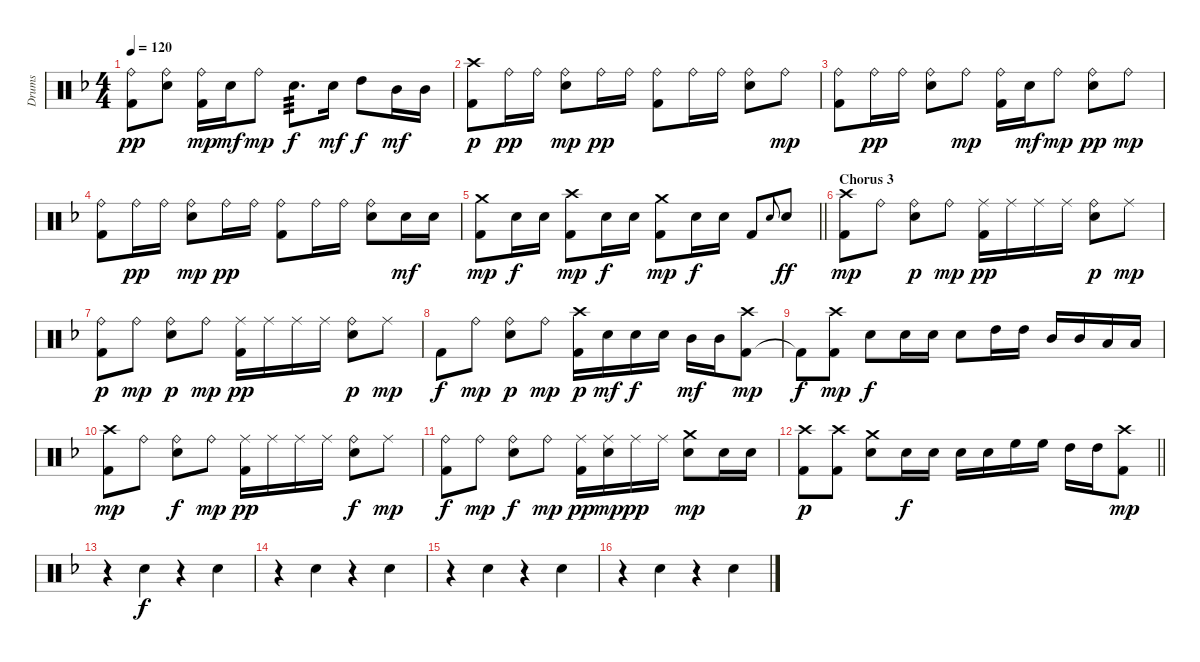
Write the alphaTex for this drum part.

\track ("Drums" "Drums") {instrument percussion}
\staff {score}
\articulation defaults
\ts (4 4)
\tempo 120
\clef neutral
\ks dminor
("Kick (hit) 2" "Ride (bell)").8{dy pp} ("Electric Snare (hit)" "Ride (bell)").8 ("Ride (bell)" "Kick (hit) 2").16{dy mp} "Electric Snare (hit)".16{dy mf} "Ride (bell)".8{dy mp} "Electric Snare (hit)".8{d tp 3 dy f} "Electric Snare (hit)".16{dy mf} "High Tom (hit)".8{dy f} "Mid Tom (hit)".16{dy mf} "Mid Tom (hit)".16 |
("Crash high (hit)" "Kick (hit) 2").8{dy p} "Ride (bell)".16{dy pp} "Ride (bell)".16 ("Ride (bell)" "Electric Snare (hit)").8{dy mp} "Ride (bell)".16{dy pp} "Ride (bell)".16 ("Ride (bell)" "Kick (hit) 2").8 "Ride (bell)".16 "Ride (bell)".16 ("Ride (bell)" "Electric Snare (hit)").8 "Ride (bell)".8{dy mp} |
("Ride (bell)" "Kick (hit) 2").8 "Ride (bell)".16{dy pp} "Ride (bell)".16 ("Ride (bell)" "Electric Snare (hit)").8 "Ride (bell)".8{dy mp} ("Ride (bell)" "Kick (hit) 2").16 "Electric Snare (hit)".16{dy mf} "Ride (bell)".8{dy mp} ("Ride (bell)" "Electric Snare (hit)").8{dy pp} "Ride (bell)".8{dy mp} |
("Ride (bell)" "Kick (hit) 2").8 "Ride (bell)".16{dy pp} "Ride (bell)".16 ("Ride (bell)" "Electric Snare (hit)").8{dy mp} "Ride (bell)".16{dy pp} "Ride (bell)".16 ("Ride (bell)" "Kick (hit) 2").8 "Ride (bell)".16 "Ride (bell)".16 ("Ride (bell)" "Electric Snare (hit)").8 "Electric Snare (hit)".16{dy mf} "Electric Snare (hit)".16 |
\barLineRight lightlight
("Kick (hit) 2" "Crash medium (hit)").8{dy mp} "Electric Snare (hit)".16{dy f} "Electric Snare (hit)".16 ("Kick (hit) 2" "Crash high (hit)").8{dy mp} "Electric Snare (hit)".16{dy f} "Electric Snare (hit)".16 ("Kick (hit) 2" "Crash medium (hit)").8{dy mp} "Electric Snare (hit)".16{dy f} "Electric Snare (hit)".16 "Kick (hit) 2".8 "Electric Snare (hit)".8{gr onbeat} "Electric Snare (hit)".8{dy ff} |
\section ("" "Chorus 3")
("Kick (hit) 2" "Crash high (hit)").8{dy mp} "Ride (bell)".8 ("Electric Snare (hit)" "Ride (bell)").8{dy p} "Ride (bell)".8{dy mp} ("Kick (hit) 2" "Ride (middle)").16{dy pp} "Ride (middle)".16 "Ride (middle)".16 "Ride (middle)".16 ("Electric Snare (hit)" "Ride (bell)").8{dy p} "Ride (middle)".8{dy mp} |
("Kick (hit) 2" "Ride (bell)").8{dy p} "Ride (bell)".8{dy mp} ("Electric Snare (hit)" "Ride (bell)").8{dy p} "Ride (bell)".8{dy mp} ("Kick (hit) 2" "Ride (middle)").16{dy pp} "Ride (middle)".16 "Ride (middle)".16 "Ride (middle)".16 ("Electric Snare (hit)" "Ride (bell)").8{dy p} "Ride (middle)".8{dy mp} |
"Kick (hit) 2".8{dy f} "Ride (bell)".8{dy mp} ("Electric Snare (hit)" "Ride (bell)").8{dy p} "Ride (bell)".8{dy mp} ("Kick (hit) 2" "Crash high (hit)").16{dy p} "Electric Snare (hit)".16{dy mf} "Electric Snare (hit)".16{dy f} "Electric Snare (hit)".16 "Mid Tom (hit)".16{dy mf} "Mid Tom (hit)".16 ("Kick (hit) 2" "Crash high (hit)").8{dy mp} |
"Kick (hit) 2"{t}.8{dy f} ("Kick (hit) 2" "Crash high (hit)").8{dy mp} "Electric Snare (hit)".8{dy f} "Electric Snare (hit)".16 "Electric Snare (hit)".16 "Electric Snare (hit)".8 "High Tom (hit)".16 "High Tom (hit)".16 "Mid Tom (hit)".16 "Mid Tom (hit)".16 "Low Tom (hit)".16 "Low Tom (hit)".16 |
("Kick (hit) 2" "Crash high (hit)").8{dy mp} "Ride (bell)".8 ("Electric Snare (hit)" "Ride (bell)").8{dy f} "Ride (bell)".8{dy mp} ("Kick (hit) 2" "Ride (middle)").16{dy pp} "Ride (middle)".16 "Ride (middle)".16 "Ride (middle)".16 ("Electric Snare (hit)" "Ride (bell)").8{dy f} "Ride (middle)".8{dy mp} |
("Kick (hit) 2" "Ride (bell)").8{dy f} "Ride (bell)".8{dy mp} ("Electric Snare (hit)" "Ride (bell)").8{dy f} "Ride (bell)".8{dy mp} ("Kick (hit) 2" "Ride (middle)").16{dy pp} ("Ride (middle)" "Electric Snare (hit)").16{dy mp} "Ride (middle)".16{dy pp} "Ride (middle)".16 ("Electric Snare (hit)" "Crash medium (hit)").8{dy mp} "Electric Snare (hit)".16 "Electric Snare (hit)".16 |
\barLineRight lightlight
("Kick (hit) 2" "Crash high (hit)").8{dy p} ("Kick (hit) 2" "Crash high (hit)").8 ("Electric Snare (hit)" "Crash medium (hit)").8 "Electric Snare (hit)".16{dy f} "Electric Snare (hit)".16 "Electric Snare (hit)".16 "Electric Snare (hit)".16 "High Floor Tom (hit)".16 "High Floor Tom (hit)".16 "High Tom (hit)".16 "High Tom (hit)".16 ("Kick (hit) 2" "Crash high (hit)").8{dy mp} |
r.4 "Electric Snare (hit)".4{dy f} r.4 "Electric Snare (hit)".4 |
r.4 "Electric Snare (hit)".4 r.4 "Electric Snare (hit)".4 |
r.4 "Electric Snare (hit)".4 r.4 "Electric Snare (hit)".4 |
r.4 "Electric Snare (hit)".4 r.4 "Electric Snare (hit)".4
